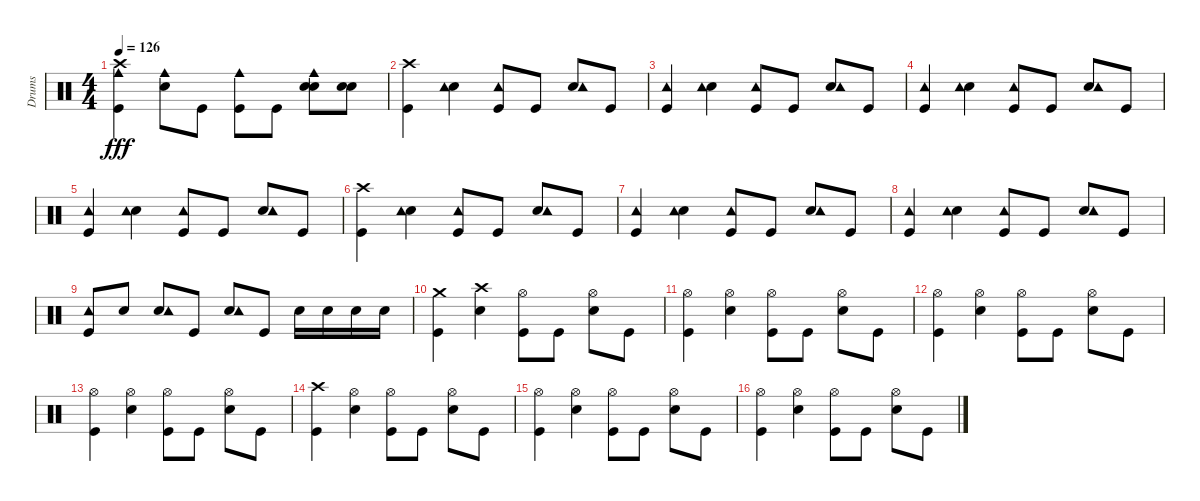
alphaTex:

\track ("Drums" "Drums") {instrument percussion}
\staff {score}
\articulation defaults
\ts (4 4)
\tempo 126
\clef neutral
\ks c
("Kick (hit)" "Crash high (hit)" "Cowbell medium (hit)").4{dy fff} ("Snare (hit) 2" "Cowbell medium (hit)").8 "Kick (hit)".8 ("Kick (hit)" "Cowbell medium (hit)").8 "Kick (hit)".8 ("Snare (hit) 2" "Cowbell medium (hit)" "Snare (hit) 2").8 ("Snare (hit) 2" "Snare (hit) 2").8 |
("Kick (hit)" "Crash high (hit)").4 ("Snare (hit) 2" "Tambourine (hit)").4 ("Kick (hit)" "Tambourine (hit)").8 "Kick (hit)".8 ("Snare (hit) 2" "Tambourine (hit)").8 "Kick (hit)".8 |
("Kick (hit)" "Tambourine (hit)").4 ("Snare (hit) 2" "Tambourine (hit)").4 ("Kick (hit)" "Tambourine (hit)").8 "Kick (hit)".8 ("Snare (hit) 2" "Tambourine (hit)").8 "Kick (hit)".8 |
("Kick (hit)" "Tambourine (hit)").4 ("Snare (hit) 2" "Tambourine (hit)").4 ("Kick (hit)" "Tambourine (hit)").8 "Kick (hit)".8 ("Snare (hit) 2" "Tambourine (hit)").8 "Kick (hit)".8 |
("Kick (hit)" "Tambourine (hit)").4 ("Snare (hit) 2" "Tambourine (hit)").4 ("Kick (hit)" "Tambourine (hit)").8 "Kick (hit)".8 ("Snare (hit) 2" "Tambourine (hit)").8 "Kick (hit)".8 |
("Kick (hit)" "Crash high (hit)").4 ("Snare (hit) 2" "Tambourine (hit)").4 ("Kick (hit)" "Tambourine (hit)").8 "Kick (hit)".8 ("Snare (hit) 2" "Tambourine (hit)").8 "Kick (hit)".8 |
("Kick (hit)" "Tambourine (hit)").4 ("Snare (hit) 2" "Tambourine (hit)").4 ("Kick (hit)" "Tambourine (hit)").8 "Kick (hit)".8 ("Snare (hit) 2" "Tambourine (hit)").8 "Kick (hit)".8 |
("Kick (hit)" "Tambourine (hit)").4 ("Snare (hit) 2" "Tambourine (hit)").4 ("Kick (hit)" "Tambourine (hit)").8 "Kick (hit)".8 ("Snare (hit) 2" "Tambourine (hit)").8 "Kick (hit)".8 |
("Kick (hit)" "Tambourine (hit)").8 "Snare (hit) 2".8 ("Snare (hit) 2" "Tambourine (hit)").8 "Kick (hit)".8 ("Snare (hit) 2" "Tambourine (hit)").8 "Kick (hit)".8 "Snare (hit) 2".16 "Snare (hit) 2".16 "Snare (hit) 2".16 "Snare (hit) 2".16 |
("Kick (hit)" "Crash medium (hit)").4 ("Snare (hit) 2" "Crash high (hit)").4 ("Kick (hit)" "Hi-Hat (open)").8 "Kick (hit)".8 ("Snare (hit) 2" "Hi-Hat (open)").8 "Kick (hit)".8 |
("Kick (hit)" "Hi-Hat (open)").4 ("Snare (hit) 2" "Hi-Hat (open)").4 ("Kick (hit)" "Hi-Hat (open)").8 "Kick (hit)".8 ("Snare (hit) 2" "Hi-Hat (open)").8 "Kick (hit)".8 |
("Kick (hit)" "Hi-Hat (open)").4 ("Snare (hit) 2" "Hi-Hat (open)").4 ("Kick (hit)" "Hi-Hat (open)").8 "Kick (hit)".8 ("Snare (hit) 2" "Hi-Hat (open)").8 "Kick (hit)".8 |
("Kick (hit)" "Hi-Hat (open)").4 ("Snare (hit) 2" "Hi-Hat (open)").4 ("Kick (hit)" "Hi-Hat (open)").8 "Kick (hit)".8 ("Snare (hit) 2" "Hi-Hat (open)").8 "Kick (hit)".8 |
("Kick (hit)" "Crash high (hit)").4 ("Snare (hit) 2" "Hi-Hat (open)").4 ("Kick (hit)" "Hi-Hat (open)").8 "Kick (hit)".8 ("Snare (hit) 2" "Hi-Hat (open)").8 "Kick (hit)".8 |
("Kick (hit)" "Hi-Hat (open)").4 ("Snare (hit) 2" "Hi-Hat (open)").4 ("Kick (hit)" "Hi-Hat (open)").8 "Kick (hit)".8 ("Snare (hit) 2" "Hi-Hat (open)").8 "Kick (hit)".8 |
("Kick (hit)" "Hi-Hat (open)").4 ("Snare (hit) 2" "Hi-Hat (open)").4 ("Kick (hit)" "Hi-Hat (open)").8 "Kick (hit)".8 ("Snare (hit) 2" "Hi-Hat (open)").8 "Kick (hit)".8
